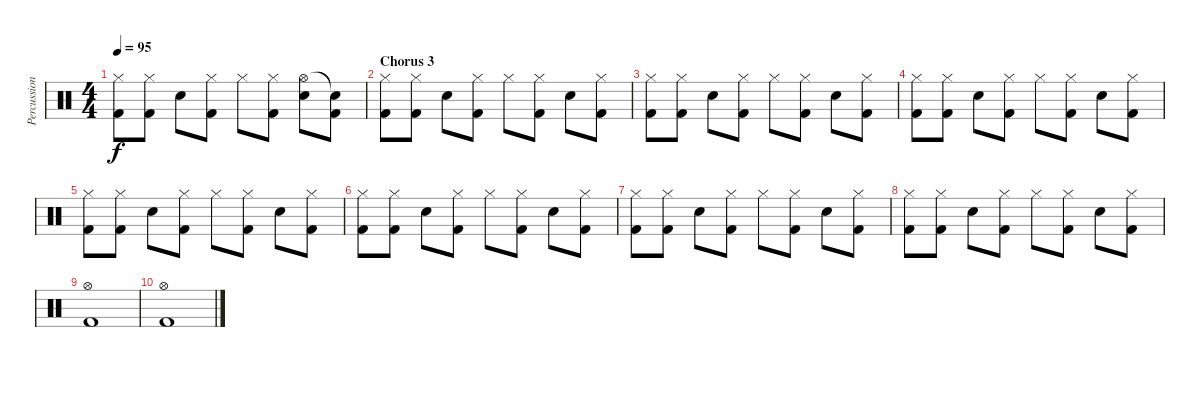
\track ("Percussion" "Percussion") {instrument percussion}
\staff {score}
\articulation defaults
\ts (4 4)
\tempo 95
\clef neutral
\ks c
("Hi-Hat (closed)" "Kick (hit) 2").8{dy f} ("Hi-Hat (closed)" "Kick (hit) 2").8 "Snare (hit) 2".8 ("Hi-Hat (closed)" "Kick (hit) 2").8 "Hi-Hat (closed)".8 ("Hi-Hat (closed)" "Kick (hit) 2").8 ("Hi-Hat (open)" "Snare (hit) 2").8 ("Snare (hit)"{t} "Kick (hit) 2").8 |
\section ("" "Chorus 3")
("Hi-Hat (closed)" "Kick (hit) 2").8 ("Hi-Hat (closed)" "Kick (hit) 2").8 "Snare (hit) 2".8 ("Hi-Hat (closed)" "Kick (hit) 2").8 "Hi-Hat (closed)".8 ("Hi-Hat (closed)" "Kick (hit) 2").8 "Snare (hit) 2".8 ("Hi-Hat (closed)" "Kick (hit) 2").8 |
("Hi-Hat (closed)" "Kick (hit) 2").8 ("Hi-Hat (closed)" "Kick (hit) 2").8 "Snare (hit) 2".8 ("Hi-Hat (closed)" "Kick (hit) 2").8 "Hi-Hat (closed)".8 ("Hi-Hat (closed)" "Kick (hit) 2").8 "Snare (hit) 2".8 ("Hi-Hat (closed)" "Kick (hit) 2").8 |
("Hi-Hat (closed)" "Kick (hit) 2").8 ("Hi-Hat (closed)" "Kick (hit) 2").8 "Snare (hit) 2".8 ("Hi-Hat (closed)" "Kick (hit) 2").8 "Hi-Hat (closed)".8 ("Hi-Hat (closed)" "Kick (hit) 2").8 "Snare (hit) 2".8 ("Hi-Hat (closed)" "Kick (hit) 2").8 |
("Hi-Hat (closed)" "Kick (hit) 2").8 ("Hi-Hat (closed)" "Kick (hit) 2").8 "Snare (hit) 2".8 ("Hi-Hat (closed)" "Kick (hit) 2").8 "Hi-Hat (closed)".8 ("Hi-Hat (closed)" "Kick (hit) 2").8 "Snare (hit) 2".8 ("Hi-Hat (closed)" "Kick (hit) 2").8 |
("Hi-Hat (closed)" "Kick (hit) 2").8 ("Hi-Hat (closed)" "Kick (hit) 2").8 "Snare (hit) 2".8 ("Hi-Hat (closed)" "Kick (hit) 2").8 "Hi-Hat (closed)".8 ("Hi-Hat (closed)" "Kick (hit) 2").8 "Snare (hit) 2".8 ("Hi-Hat (closed)" "Kick (hit) 2").8 |
("Hi-Hat (closed)" "Kick (hit) 2").8 ("Hi-Hat (closed)" "Kick (hit) 2").8 "Snare (hit) 2".8 ("Hi-Hat (closed)" "Kick (hit) 2").8 "Hi-Hat (closed)".8 ("Hi-Hat (closed)" "Kick (hit) 2").8 "Snare (hit) 2".8 ("Hi-Hat (closed)" "Kick (hit) 2").8 |
("Hi-Hat (closed)" "Kick (hit) 2").8 ("Hi-Hat (closed)" "Kick (hit) 2").8 "Snare (hit) 2".8 ("Hi-Hat (closed)" "Kick (hit) 2").8 "Hi-Hat (closed)".8 ("Hi-Hat (closed)" "Kick (hit) 2").8 "Snare (hit) 2".8 ("Hi-Hat (closed)" "Kick (hit) 2").8 |
("Hi-Hat (open)" "Kick (hit) 2").1 |
("Hi-Hat (open)" "Kick (hit) 2").1
